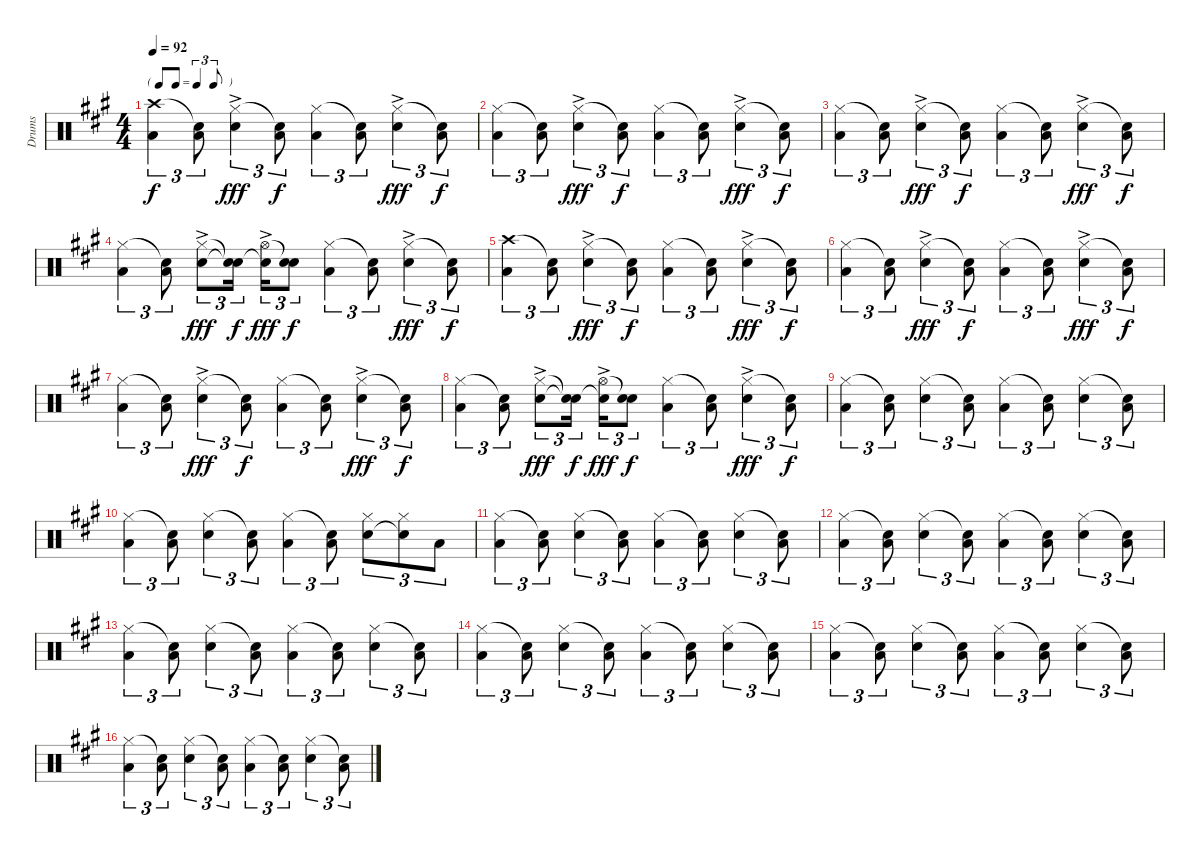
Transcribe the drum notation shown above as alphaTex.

\track ("Drums" "Drums") {instrument percussion}
\staff {score}
\articulation defaults
\ts (4 4)
\tf triplet8th
\tempo 92
\clef neutral
\ks f#minor
("Crash high (hit)" "Low Tom (hit)").4{tu (3 2) dy f} ("Snare (hit)"{t} "Low Tom (hit)").8{tu (3 2)} ("Hi-Hat (closed)"{ac} "Snare (hit) 2").4{tu (3 2) dy fff} ("Snare (hit)"{t} "Low Tom (hit)").8{tu (3 2) dy f} ("Hi-Hat (closed)" "Low Tom (hit)").4{tu (3 2)} ("Snare (hit)"{t} "Low Tom (hit)").8{tu (3 2)} ("Hi-Hat (closed)"{ac} "Snare (hit) 2").4{tu (3 2) dy fff} ("Snare (hit)"{t} "Low Tom (hit)").8{tu (3 2) dy f} |
("Hi-Hat (closed)" "Low Tom (hit)").4{tu (3 2)} ("Snare (hit)"{t} "Low Tom (hit)").8{tu (3 2)} ("Hi-Hat (closed)"{ac} "Snare (hit) 2").4{tu (3 2) dy fff} ("Snare (hit)"{t} "Low Tom (hit)").8{tu (3 2) dy f} ("Hi-Hat (closed)" "Low Tom (hit)").4{tu (3 2)} ("Snare (hit)"{t} "Low Tom (hit)").8{tu (3 2)} ("Hi-Hat (closed)"{ac} "Snare (hit) 2").4{tu (3 2) dy fff} ("Snare (hit)"{t} "Low Tom (hit)").8{tu (3 2) dy f} |
("Hi-Hat (closed)" "Low Tom (hit)").4{tu (3 2)} ("Snare (hit)"{t} "Low Tom (hit)").8{tu (3 2)} ("Hi-Hat (closed)"{ac} "Snare (hit) 2").4{tu (3 2) dy fff} ("Snare (hit)"{t} "Low Tom (hit)").8{tu (3 2) dy f} ("Hi-Hat (closed)" "Low Tom (hit)").4{tu (3 2)} ("Snare (hit)"{t} "Low Tom (hit)").8{tu (3 2)} ("Hi-Hat (closed)"{ac} "Snare (hit) 2").4{tu (3 2) dy fff} ("Snare (hit)"{t} "Low Tom (hit)").8{tu (3 2) dy f} |
("Hi-Hat (closed)" "Low Tom (hit)").4{tu (3 2)} ("Snare (hit)"{t} "Low Tom (hit)").8{tu (3 2)} ("Hi-Hat (closed)"{ac} "Snare (hit) 2").8{tu (3 2) dy fff} ("Snare (hit)"{t} "Snare (hit)"{t}).16{tu (3 2) dy f} ("Hi-Hat (open)"{ac} "Snare (hit)"{t}).16{tu (3 2) dy fff} ("Snare (hit)"{t} "Snare (hit) 2").8{tu (3 2) dy f} ("Hi-Hat (closed)" "Low Tom (hit)").4{tu (3 2)} ("Snare (hit)"{t} "Low Tom (hit)").8{tu (3 2)} ("Hi-Hat (closed)"{ac} "Snare (hit) 2").4{tu (3 2) dy fff} ("Snare (hit)"{t} "Low Tom (hit)").8{tu (3 2) dy f} |
("Crash high (hit)" "Low Tom (hit)").4{tu (3 2)} ("Snare (hit)"{t} "Low Tom (hit)").8{tu (3 2)} ("Hi-Hat (closed)"{ac} "Snare (hit) 2").4{tu (3 2) dy fff} ("Snare (hit)"{t} "Low Tom (hit)").8{tu (3 2) dy f} ("Hi-Hat (closed)" "Low Tom (hit)").4{tu (3 2)} ("Snare (hit)"{t} "Low Tom (hit)").8{tu (3 2)} ("Hi-Hat (closed)"{ac} "Snare (hit) 2").4{tu (3 2) dy fff} ("Snare (hit)"{t} "Low Tom (hit)").8{tu (3 2) dy f} |
("Hi-Hat (closed)" "Low Tom (hit)").4{tu (3 2)} ("Snare (hit)"{t} "Low Tom (hit)").8{tu (3 2)} ("Hi-Hat (closed)"{ac} "Snare (hit) 2").4{tu (3 2) dy fff} ("Snare (hit)"{t} "Low Tom (hit)").8{tu (3 2) dy f} ("Hi-Hat (closed)" "Low Tom (hit)").4{tu (3 2)} ("Snare (hit)"{t} "Low Tom (hit)").8{tu (3 2)} ("Hi-Hat (closed)"{ac} "Snare (hit) 2").4{tu (3 2) dy fff} ("Snare (hit)"{t} "Low Tom (hit)").8{tu (3 2) dy f} |
("Hi-Hat (closed)" "Low Tom (hit)").4{tu (3 2)} ("Snare (hit)"{t} "Low Tom (hit)").8{tu (3 2)} ("Hi-Hat (closed)"{ac} "Snare (hit) 2").4{tu (3 2) dy fff} ("Snare (hit)"{t} "Low Tom (hit)").8{tu (3 2) dy f} ("Hi-Hat (closed)" "Low Tom (hit)").4{tu (3 2)} ("Snare (hit)"{t} "Low Tom (hit)").8{tu (3 2)} ("Hi-Hat (closed)"{ac} "Snare (hit) 2").4{tu (3 2) dy fff} ("Snare (hit)"{t} "Low Tom (hit)").8{tu (3 2) dy f} |
("Hi-Hat (closed)" "Low Tom (hit)").4{tu (3 2)} ("Snare (hit)"{t} "Low Tom (hit)").8{tu (3 2)} ("Hi-Hat (closed)"{ac} "Snare (hit) 2").8{tu (3 2) dy fff} ("Snare (hit)"{t} "Snare (hit)"{t}).16{tu (3 2) dy f} ("Hi-Hat (open)"{ac} "Snare (hit)"{t}).16{tu (3 2) dy fff} ("Snare (hit)"{t} "Snare (hit) 2").8{tu (3 2) dy f} ("Hi-Hat (closed)" "Low Tom (hit)").4{tu (3 2)} ("Snare (hit)"{t} "Low Tom (hit)").8{tu (3 2)} ("Hi-Hat (closed)"{ac} "Snare (hit) 2").4{tu (3 2) dy fff} ("Snare (hit)"{t} "Low Tom (hit)").8{tu (3 2) dy f} |
("Hi-Hat (closed)" "Low Tom (hit)").4{tu (3 2)} ("Snare (hit)"{t} "Low Tom (hit)").8{tu (3 2)} ("Hi-Hat (closed)" "Snare (hit) 2").4{tu (3 2)} ("Snare (hit)"{t} "Low Tom (hit)").8{tu (3 2)} ("Hi-Hat (closed)" "Low Tom (hit)").4{tu (3 2)} ("Snare (hit)"{t} "Low Tom (hit)").8{tu (3 2)} ("Hi-Hat (closed)" "Snare (hit) 2").4{tu (3 2)} ("Snare (hit)"{t} "Low Tom (hit)").8{tu (3 2)} |
("Hi-Hat (closed)" "Low Tom (hit)").4{tu (3 2)} ("Snare (hit)"{t} "Low Tom (hit)").8{tu (3 2)} ("Hi-Hat (closed)" "Snare (hit) 2").4{tu (3 2)} ("Snare (hit)"{t} "Low Tom (hit)").8{tu (3 2)} ("Hi-Hat (closed)" "Low Tom (hit)").4{tu (3 2)} ("Snare (hit)"{t} "Low Tom (hit)").8{tu (3 2)} ("Hi-Hat (closed)" "Snare (hit) 2").8{tu (3 2)} ("Hi-Hat (closed)" "Snare (hit)"{t}).8{tu (3 2)} "Low Tom (hit)".8{tu (3 2)} |
("Hi-Hat (closed)" "Low Tom (hit)").4{tu (3 2)} ("Snare (hit)"{t} "Low Tom (hit)").8{tu (3 2)} ("Hi-Hat (closed)" "Snare (hit) 2").4{tu (3 2)} ("Snare (hit)"{t} "Low Tom (hit)").8{tu (3 2)} ("Hi-Hat (closed)" "Low Tom (hit)").4{tu (3 2)} ("Snare (hit)"{t} "Low Tom (hit)").8{tu (3 2)} ("Hi-Hat (closed)" "Snare (hit) 2").4{tu (3 2)} ("Snare (hit)"{t} "Low Tom (hit)").8{tu (3 2)} |
("Hi-Hat (closed)" "Low Tom (hit)").4{tu (3 2)} ("Snare (hit)"{t} "Low Tom (hit)").8{tu (3 2)} ("Hi-Hat (closed)" "Snare (hit) 2").4{tu (3 2)} ("Snare (hit)"{t} "Low Tom (hit)").8{tu (3 2)} ("Hi-Hat (closed)" "Low Tom (hit)").4{tu (3 2)} ("Snare (hit)"{t} "Low Tom (hit)").8{tu (3 2)} ("Hi-Hat (closed)" "Snare (hit) 2").4{tu (3 2)} ("Snare (hit)"{t} "Low Tom (hit)").8{tu (3 2)} |
("Hi-Hat (closed)" "Low Tom (hit)").4{tu (3 2)} ("Snare (hit)"{t} "Low Tom (hit)").8{tu (3 2)} ("Hi-Hat (closed)" "Snare (hit) 2").4{tu (3 2)} ("Snare (hit)"{t} "Low Tom (hit)").8{tu (3 2)} ("Hi-Hat (closed)" "Low Tom (hit)").4{tu (3 2)} ("Snare (hit)"{t} "Low Tom (hit)").8{tu (3 2)} ("Hi-Hat (closed)" "Snare (hit) 2").4{tu (3 2)} ("Snare (hit)"{t} "Low Tom (hit)").8{tu (3 2)} |
("Hi-Hat (closed)" "Low Tom (hit)").4{tu (3 2)} ("Snare (hit)"{t} "Low Tom (hit)").8{tu (3 2)} ("Hi-Hat (closed)" "Snare (hit) 2").4{tu (3 2)} ("Snare (hit)"{t} "Low Tom (hit)").8{tu (3 2)} ("Hi-Hat (closed)" "Low Tom (hit)").4{tu (3 2)} ("Snare (hit)"{t} "Low Tom (hit)").8{tu (3 2)} ("Hi-Hat (closed)" "Snare (hit) 2").4{tu (3 2)} ("Snare (hit)"{t} "Low Tom (hit)").8{tu (3 2)} |
("Hi-Hat (closed)" "Low Tom (hit)").4{tu (3 2)} ("Snare (hit)"{t} "Low Tom (hit)").8{tu (3 2)} ("Hi-Hat (closed)" "Snare (hit) 2").4{tu (3 2)} ("Snare (hit)"{t} "Low Tom (hit)").8{tu (3 2)} ("Hi-Hat (closed)" "Low Tom (hit)").4{tu (3 2)} ("Snare (hit)"{t} "Low Tom (hit)").8{tu (3 2)} ("Hi-Hat (closed)" "Snare (hit) 2").4{tu (3 2)} ("Snare (hit)"{t} "Low Tom (hit)").8{tu (3 2)} |
("Hi-Hat (closed)" "Low Tom (hit)").4{tu (3 2)} ("Snare (hit)"{t} "Low Tom (hit)").8{tu (3 2)} ("Hi-Hat (closed)" "Snare (hit) 2").4{tu (3 2)} ("Snare (hit)"{t} "Low Tom (hit)").8{tu (3 2)} ("Hi-Hat (closed)" "Low Tom (hit)").4{tu (3 2)} ("Snare (hit)"{t} "Low Tom (hit)").8{tu (3 2)} ("Hi-Hat (closed)" "Snare (hit) 2").4{tu (3 2)} ("Snare (hit)"{t} "Low Tom (hit)").8{tu (3 2)}
